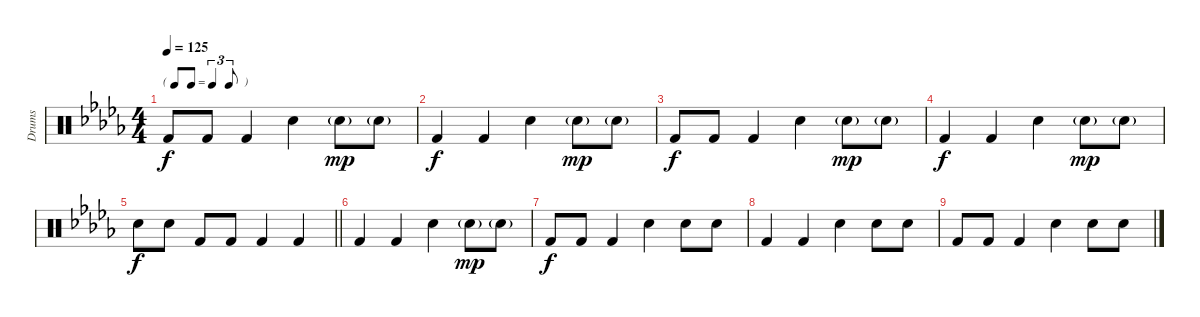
\track ("Drums" "Drums") {instrument percussion}
\staff {score}
\articulation defaults
\ts (4 4)
\tf triplet8th
\tempo 125
\clef neutral
\ks db "Kick (hit) 2".8{dy f} "Kick (hit) 2".8 "Kick (hit) 2".4 "Snare (hit) 2".4 "Snare (hit) 2"{g}.8{dy mp} "Snare (hit) 2"{g}.8
|
"Kick (hit) 2".4{dy f} "Kick (hit) 2".4 "Snare (hit) 2".4 "Snare (hit) 2"{g}.8{dy mp} "Snare (hit) 2"{g}.8 |
"Kick (hit) 2".8{dy f} "Kick (hit) 2".8 "Kick (hit) 2".4 "Snare (hit) 2".4 "Snare (hit) 2"{g}.8{dy mp} "Snare (hit) 2"{g}.8 |
"Kick (hit) 2".4{dy f} "Kick (hit) 2".4 "Snare (hit) 2".4 "Snare (hit) 2"{g}.8{dy mp} "Snare (hit) 2"{g}.8 |
\barLineRight lightlight "Snare (hit) 2".8{dy f} "Snare (hit) 2".8 "Kick (hit) 2".8 "Kick (hit) 2".8 "Kick (hit) 2".4 "Kick (hit) 2".4
|
"Kick (hit) 2".4{volume 0} "Kick (hit) 2".4 "Snare (hit) 2".4 "Snare (hit) 2"{g}.8{dy mp} "Snare (hit) 2"{g}.8 |
"Kick (hit) 2".8{dy f} "Kick (hit) 2".8 "Kick (hit) 2".4 "Snare (hit) 2".4 "Snare (hit) 2".8 "Snare (hit) 2".8 |
"Kick (hit) 2".4 "Kick (hit) 2".4 "Snare (hit) 2".4 "Snare (hit) 2".8 "Snare (hit) 2".8 |
"Kick (hit) 2".8 "Kick (hit) 2".8 "Kick (hit) 2".4 "Snare (hit) 2".4 "Snare (hit) 2".8 "Snare (hit) 2".8
